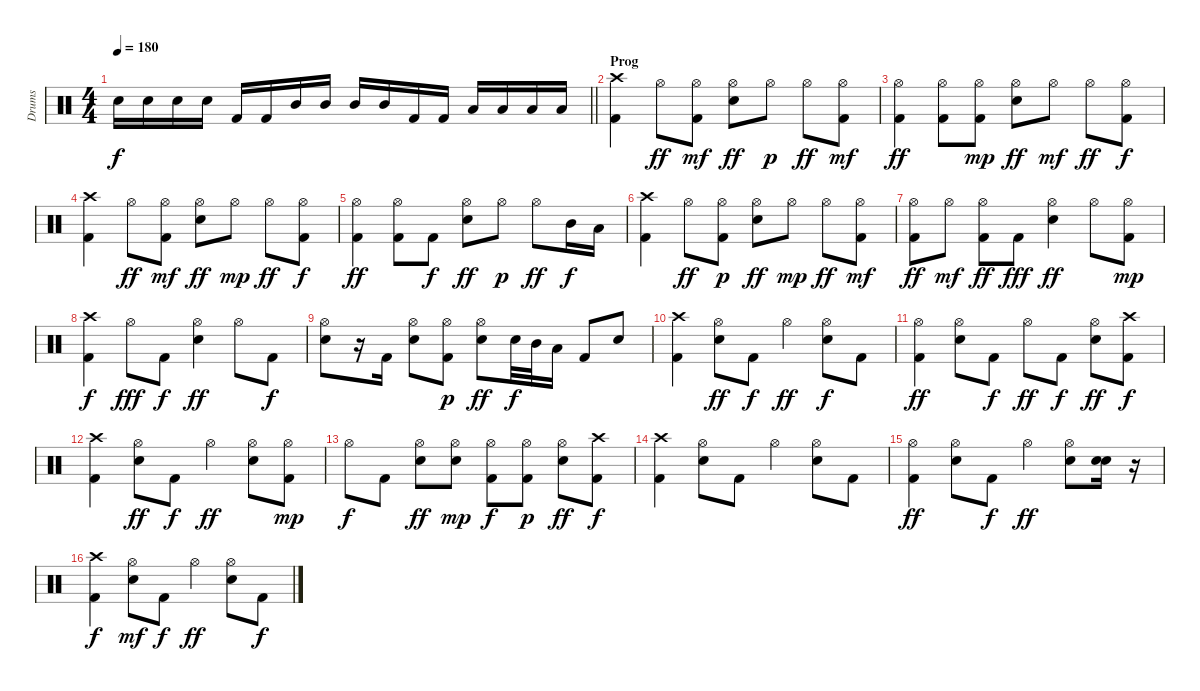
\track ("Drums" "Drums") {instrument percussion}
\staff {score}
\articulation defaults
\ts (4 4)
\tempo 180
\clef neutral
\barLineRight lightlight
\ks c "Snare (hit) 2".16{dy f} "Snare (hit) 2".16 "Snare (hit) 2".16 "Snare (hit) 2".16 "Kick (hit) 2".16 "Kick (hit) 2".16 "Mid Tom (hit)".16 "Mid Tom (hit)".16 "Mid Tom (hit)".16 "Mid Tom (hit)".16 "Kick (hit) 2".16 "Kick (hit) 2".16 "Low Tom (hit)".16 "Low Tom (hit)".16 "Low Tom (hit)".16 "Low Tom (hit)".16
|
\section ("" "Prog")
("Crash high (hit)" "Kick (hit) 2").4 "Hi-Hat (open)".8{dy ff} ("Hi-Hat (open)" "Kick (hit) 2").8{dy mf} ("Hi-Hat (open)" "Snare (hit) 2").8{dy ff} "Hi-Hat (open)".8{dy p} "Hi-Hat (open)".8{dy ff} ("Hi-Hat (open)" "Kick (hit) 2").8{dy mf} |
("Hi-Hat (open)" "Kick (hit) 2").4{dy ff} ("Hi-Hat (open)" "Kick (hit) 2").8 ("Hi-Hat (open)" "Kick (hit) 2").8{dy mp} ("Hi-Hat (open)" "Snare (hit) 2").8{dy ff} "Hi-Hat (open)".8{dy mf} "Hi-Hat (open)".8{dy ff} ("Hi-Hat (open)" "Kick (hit) 2").8{dy f} |
("Crash high (hit)" "Kick (hit) 2").4 "Hi-Hat (open)".8{dy ff} ("Hi-Hat (open)" "Kick (hit) 2").8{dy mf} ("Hi-Hat (open)" "Snare (hit) 2").8{dy ff} "Hi-Hat (open)".8{dy mp} "Hi-Hat (open)".8{dy ff} ("Hi-Hat (open)" "Kick (hit) 2").8{dy f} |
("Hi-Hat (open)" "Kick (hit) 2").4{dy ff} ("Hi-Hat (open)" "Kick (hit) 2").8 "Kick (hit) 2".8{dy f} ("Hi-Hat (open)" "Snare (hit) 2").8{dy ff} "Hi-Hat (open)".8{dy p} "Hi-Hat (open)".8{dy ff} "Mid Tom (hit)".16{dy f} "Low Tom (hit)".16 |
("Crash high (hit)" "Kick (hit) 2").4 "Hi-Hat (open)".8{dy ff} ("Hi-Hat (open)" "Kick (hit) 2").8{dy p} ("Hi-Hat (open)" "Snare (hit) 2").8{dy ff} "Hi-Hat (open)".8{dy mp} "Hi-Hat (open)".8{dy ff} ("Hi-Hat (open)" "Kick (hit) 2").8{dy mf} |
("Hi-Hat (open)" "Kick (hit) 2").8{dy ff} "Hi-Hat (open)".8{dy mf} ("Hi-Hat (open)" "Kick (hit) 2").8{dy ff} "Kick (hit) 2".8{dy fff} ("Hi-Hat (open)" "Snare (hit) 2").4{dy ff} "Hi-Hat (open)".8 ("Hi-Hat (open)" "Kick (hit) 2").8{dy mp} |
("Crash high (hit)" "Kick (hit) 2").4{dy f} "Hi-Hat (open)".8{dy fff} "Kick (hit) 2".8{dy f} ("Hi-Hat (open)" "Snare (hit) 2").4{dy ff} "Hi-Hat (open)".8 "Kick (hit) 2".8{dy f} |
("Hi-Hat (open)" "Snare (hit) 2").8 r.16 "Kick (hit) 2".16 ("Hi-Hat (open)" "Snare (hit) 2").8 ("Hi-Hat (open)" "Kick (hit) 2").8{dy p} ("Hi-Hat (open)" "Snare (hit) 2").8{dy ff} "Snare (hit) 2".32{dy f} "Mid Tom (hit)".32 "Low Tom (hit)".16 "Kick (hit) 2".8 "Snare (hit) 2".8 |
("Crash high (hit)" "Kick (hit) 2").4 ("Hi-Hat (open)" "Snare (hit) 2").8{dy ff} "Kick (hit) 2".8{dy f} "Hi-Hat (open)".4{dy ff} ("Hi-Hat (open)" "Snare (hit) 2").8{dy f} "Kick (hit) 2".8 |
("Hi-Hat (open)" "Kick (hit) 2").4{dy ff} ("Hi-Hat (open)" "Snare (hit) 2").8 "Kick (hit) 2".8{dy f} "Hi-Hat (open)".8{dy ff} "Kick (hit) 2".8{dy f} ("Hi-Hat (open)" "Snare (hit) 2").8{dy ff} ("Crash high (hit)" "Kick (hit) 2").8{dy f} |
("Crash high (hit)" "Kick (hit) 2").4 ("Hi-Hat (open)" "Snare (hit) 2").8{dy ff} "Kick (hit) 2".8{dy f} "Hi-Hat (open)".4{dy ff} ("Hi-Hat (open)" "Snare (hit) 2").8 ("Hi-Hat (open)" "Kick (hit) 2").8{dy mp} |
"Hi-Hat (open)".8{dy f} "Kick (hit) 2".8 ("Hi-Hat (open)" "Snare (hit) 2").8{dy ff} ("Hi-Hat (open)" "Snare (hit) 2").8{dy mp} ("Hi-Hat (open)" "Kick (hit) 2").8{dy f} ("Hi-Hat (open)" "Kick (hit) 2").8{dy p} ("Hi-Hat (open)" "Snare (hit) 2").8{dy ff} ("Crash high (hit)" "Kick (hit) 2").8{dy f} |
("Crash high (hit)" "Kick (hit) 2").4 ("Hi-Hat (open)" "Snare (hit) 2").8 "Kick (hit) 2".8 "Hi-Hat (open)".4 ("Hi-Hat (open)" "Snare (hit) 2").8 "Kick (hit) 2".8 |
("Hi-Hat (open)" "Kick (hit) 2").4{dy ff} ("Hi-Hat (open)" "Snare (hit) 2").8 "Kick (hit) 2".8{dy f} "Hi-Hat (open)".4{dy ff} ("Hi-Hat (open)" "Snare (hit) 2").8 ("Snare (hit) 2" "Snare (hit) 2").16 r.16 |
("Crash high (hit)" "Kick (hit) 2").4{dy f} ("Hi-Hat (open)" "Snare (hit) 2").8{dy mf} "Kick (hit) 2".8{dy f} "Hi-Hat (open)".4{dy ff} ("Hi-Hat (open)" "Snare (hit) 2").8 "Kick (hit) 2".8{dy f}
